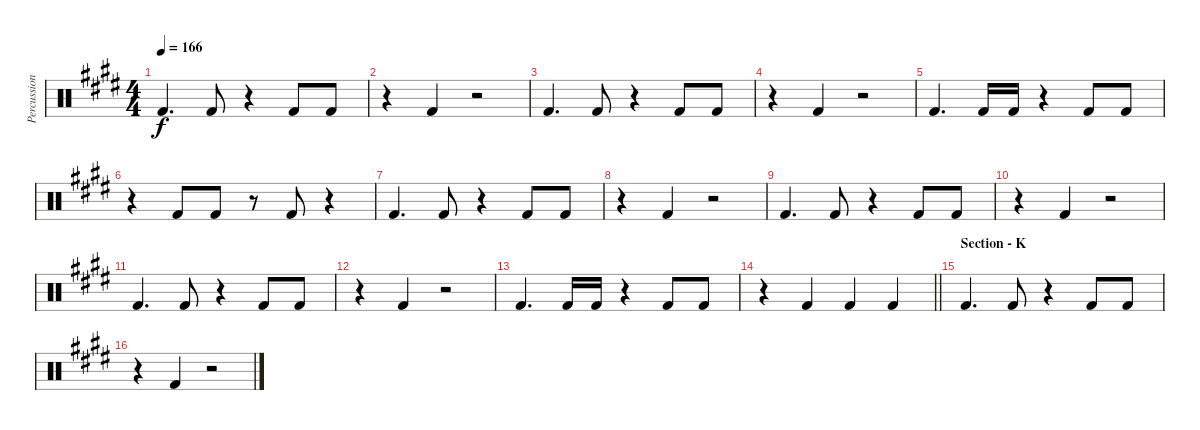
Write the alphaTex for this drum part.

\track ("Percussion - Other Again" "Percussion") {instrument percussion}
\staff {score}
\articulation defaults
\ts (4 4)
\tempo 166
\clef neutral
\ks e "Kick (hit) 2".4{d dy f} "Kick (hit) 2".8
r.4 "Kick (hit) 2".8 "Kick (hit) 2".8 |
r.4 "Kick (hit) 2".4 r.2 |
"Kick (hit) 2".4{d} "Kick (hit) 2".8 r.4 "Kick (hit) 2".8 "Kick (hit) 2".8 |
r.4 "Kick (hit) 2".4 r.2 |
"Kick (hit) 2".4{d} "Kick (hit) 2".16 "Kick (hit) 2".16 r.4 "Kick (hit) 2".8 "Kick (hit) 2".8 |
r.4 "Kick (hit) 2".8 "Kick (hit) 2".8 r.8 "Kick (hit) 2".8 r.4 |
"Kick (hit) 2".4{d} "Kick (hit) 2".8 r.4 "Kick (hit) 2".8 "Kick (hit) 2".8 |
r.4 "Kick (hit) 2".4 r.2 |
"Kick (hit) 2".4{d} "Kick (hit) 2".8 r.4 "Kick (hit) 2".8 "Kick (hit) 2".8 |
r.4 "Kick (hit) 2".4 r.2 |
"Kick (hit) 2".4{d} "Kick (hit) 2".8 r.4 "Kick (hit) 2".8 "Kick (hit) 2".8 |
r.4 "Kick (hit) 2".4 r.2 |
"Kick (hit) 2".4{d} "Kick (hit) 2".16 "Kick (hit) 2".16 r.4 "Kick (hit) 2".8 "Kick (hit) 2".8 |
\barLineRight lightlight
r.4 "Kick (hit) 2".4 "Kick (hit) 2".4 "Kick (hit) 2".4 |
\section ("" "Section - K")
"Kick (hit) 2".4{d} "Kick (hit) 2".8 r.4 "Kick (hit) 2".8 "Kick (hit) 2".8 |
r.4 "Kick (hit) 2".4 r.2
